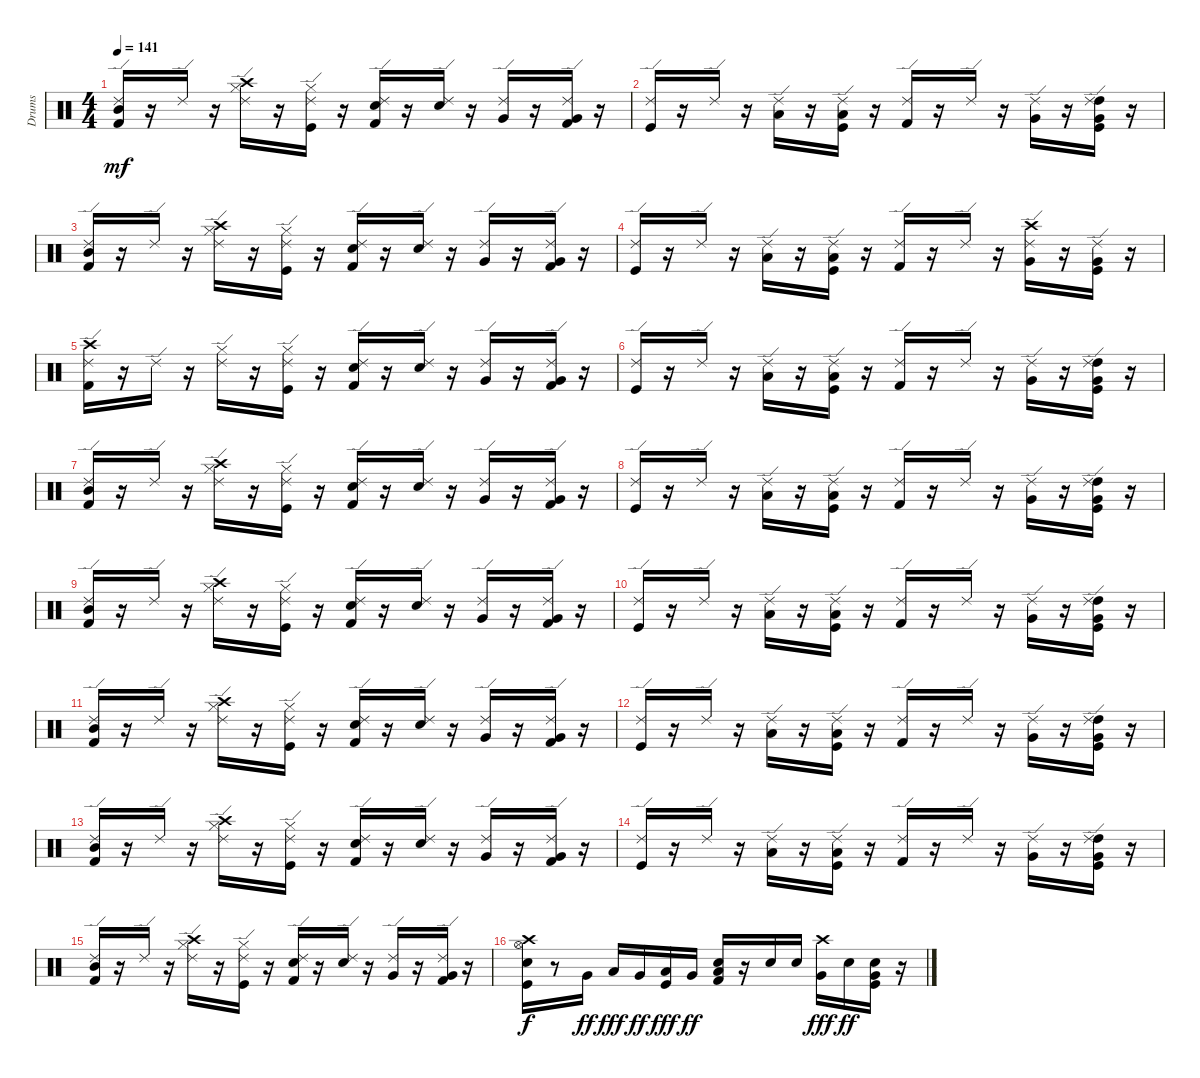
\track ("Drums" "Drums") {instrument percussion}
\staff {score}
\articulation defaults
\ts (4 4)
\tempo 141
\clef neutral
\ks c
("Kick (hit) 2" "Ride (edge) 2" "Mid Tom (hit)").16{dy mf} r.16 "Ride (edge) 2".16 r.16 ("Crash high (hit)" "Hi-Hat (closed)" "Ride (edge) 2").16 r.16 ("Kick (hit)" "Hi-Hat (closed)" "Ride (edge) 2").16 r.16 ("Snare (hit) 2" "Kick (hit) 2" "Ride (edge) 2").16 r.16 ("Snare (hit) 2" "Ride (edge) 2").16 r.16 ("Very Low Tom (hit)" "Ride (edge) 2").16 r.16 ("Kick (hit) 2" "Very Low Tom (hit)" "Ride (edge) 2").16 r.16 |
("Kick (hit)" "Ride (edge) 2").16 r.16 "Ride (edge) 2".16 r.16 ("Low Floor Tom (hit)" "Ride (edge) 2").16 r.16 ("Kick (hit)" "Low Floor Tom (hit)" "Ride (edge) 2").16 r.16 ("Kick (hit) 2" "Ride (edge) 2").16 r.16 "Ride (edge) 2".16 r.16 ("Very Low Tom (hit)" "Ride (edge) 2").16 r.16 ("High Tom (hit)" "Kick (hit)" "Very Low Tom (hit)" "Ride (edge) 2").16 r.16 |
("Kick (hit) 2" "Ride (edge) 2" "Mid Tom (hit)").16 r.16 "Ride (edge) 2".16 r.16 ("Crash high (hit)" "Hi-Hat (closed)" "Ride (edge) 2").16 r.16 ("Kick (hit)" "Hi-Hat (closed)" "Ride (edge) 2").16 r.16 ("Snare (hit) 2" "Kick (hit) 2" "Ride (edge) 2").16 r.16 ("Snare (hit) 2" "Ride (edge) 2").16 r.16 ("Very Low Tom (hit)" "Ride (edge) 2").16 r.16 ("Kick (hit) 2" "Very Low Tom (hit)" "Ride (edge) 2").16 r.16 |
("Kick (hit)" "Ride (edge) 2").16 r.16 "Ride (edge) 2".16 r.16 ("Low Floor Tom (hit)" "Ride (edge) 2").16 r.16 ("Kick (hit)" "Low Floor Tom (hit)" "Ride (edge) 2").16 r.16 ("Kick (hit) 2" "Ride (edge) 2").16 r.16 "Ride (edge) 2".16 r.16 ("Very Low Tom (hit)" "Crash high (hit)" "Ride (edge) 2").16 r.16 ("Kick (hit)" "Very Low Tom (hit)" "Ride (edge) 2").16 r.16 |
("Kick (hit) 2" "Ride (edge) 2" "Crash high (hit)").16 r.16 "Ride (edge) 2".16 r.16 ("Hi-Hat (closed)" "Ride (edge) 2").16 r.16 ("Kick (hit)" "Hi-Hat (closed)" "Ride (edge) 2").16 r.16 ("Snare (hit) 2" "Kick (hit) 2" "Ride (edge) 2").16 r.16 ("Snare (hit) 2" "Ride (edge) 2").16 r.16 ("Very Low Tom (hit)" "Ride (edge) 2").16 r.16 ("Kick (hit) 2" "Very Low Tom (hit)" "Ride (edge) 2").16 r.16 |
("Kick (hit)" "Ride (edge) 2").16 r.16 "Ride (edge) 2".16 r.16 ("Low Floor Tom (hit)" "Ride (edge) 2").16 r.16 ("Kick (hit)" "Low Floor Tom (hit)" "Ride (edge) 2").16 r.16 ("Kick (hit) 2" "Ride (edge) 2").16 r.16 "Ride (edge) 2".16 r.16 ("Very Low Tom (hit)" "Ride (edge) 2").16 r.16 ("High Tom (hit)" "Kick (hit)" "Very Low Tom (hit)" "Ride (edge) 2").16 r.16 |
("Kick (hit) 2" "Ride (edge) 2" "Mid Tom (hit)").16 r.16 "Ride (edge) 2".16 r.16 ("Crash high (hit)" "Hi-Hat (closed)" "Ride (edge) 2").16 r.16 ("Kick (hit)" "Hi-Hat (closed)" "Ride (edge) 2").16 r.16 ("Snare (hit) 2" "Kick (hit) 2" "Ride (edge) 2").16 r.16 ("Snare (hit) 2" "Ride (edge) 2").16 r.16 ("Very Low Tom (hit)" "Ride (edge) 2").16 r.16 ("Kick (hit) 2" "Very Low Tom (hit)" "Ride (edge) 2").16 r.16 |
("Kick (hit)" "Ride (edge) 2").16 r.16 "Ride (edge) 2".16 r.16 ("Low Floor Tom (hit)" "Ride (edge) 2").16 r.16 ("Kick (hit)" "Low Floor Tom (hit)" "Ride (edge) 2").16 r.16 ("Kick (hit) 2" "Ride (edge) 2").16 r.16 "Ride (edge) 2".16 r.16 ("Very Low Tom (hit)" "Ride (edge) 2").16 r.16 ("High Tom (hit)" "Kick (hit)" "Very Low Tom (hit)" "Ride (edge) 2").16 r.16 |
("Kick (hit) 2" "Ride (edge) 2" "Mid Tom (hit)").16 r.16 "Ride (edge) 2".16 r.16 ("Crash high (hit)" "Hi-Hat (closed)" "Ride (edge) 2").16 r.16 ("Kick (hit)" "Hi-Hat (closed)" "Ride (edge) 2").16 r.16 ("Snare (hit) 2" "Kick (hit) 2" "Ride (edge) 2").16 r.16 ("Snare (hit) 2" "Ride (edge) 2").16 r.16 ("Very Low Tom (hit)" "Ride (edge) 2").16 r.16 ("Kick (hit) 2" "Very Low Tom (hit)" "Ride (edge) 2").16 r.16 |
("Kick (hit)" "Ride (edge) 2").16 r.16 "Ride (edge) 2".16 r.16 ("Low Floor Tom (hit)" "Ride (edge) 2").16 r.16 ("Kick (hit)" "Low Floor Tom (hit)" "Ride (edge) 2").16 r.16 ("Kick (hit) 2" "Ride (edge) 2").16 r.16 "Ride (edge) 2".16 r.16 ("Very Low Tom (hit)" "Ride (edge) 2").16 r.16 ("High Tom (hit)" "Kick (hit)" "Very Low Tom (hit)" "Ride (edge) 2").16 r.16 |
("Kick (hit) 2" "Ride (edge) 2" "Mid Tom (hit)").16 r.16 "Ride (edge) 2".16 r.16 ("Crash high (hit)" "Hi-Hat (closed)" "Ride (edge) 2").16 r.16 ("Kick (hit)" "Hi-Hat (closed)" "Ride (edge) 2").16 r.16 ("Snare (hit) 2" "Kick (hit) 2" "Ride (edge) 2").16 r.16 ("Snare (hit) 2" "Ride (edge) 2").16 r.16 ("Very Low Tom (hit)" "Ride (edge) 2").16 r.16 ("Kick (hit) 2" "Very Low Tom (hit)" "Ride (edge) 2").16 r.16 |
("Kick (hit)" "Ride (edge) 2").16 r.16 "Ride (edge) 2".16 r.16 ("Low Floor Tom (hit)" "Ride (edge) 2").16 r.16 ("Kick (hit)" "Low Floor Tom (hit)" "Ride (edge) 2").16 r.16 ("Kick (hit) 2" "Ride (edge) 2").16 r.16 "Ride (edge) 2".16 r.16 ("Very Low Tom (hit)" "Ride (edge) 2").16 r.16 ("High Tom (hit)" "Kick (hit)" "Very Low Tom (hit)" "Ride (edge) 2").16 r.16 |
("Kick (hit) 2" "Ride (edge) 2" "Mid Tom (hit)").16 r.16 "Ride (edge) 2".16 r.16 ("Crash high (hit)" "Hi-Hat (closed)" "Ride (edge) 2").16 r.16 ("Kick (hit)" "Hi-Hat (closed)" "Ride (edge) 2").16 r.16 ("Snare (hit) 2" "Kick (hit) 2" "Ride (edge) 2").16 r.16 ("Snare (hit) 2" "Ride (edge) 2").16 r.16 ("Very Low Tom (hit)" "Ride (edge) 2").16 r.16 ("Kick (hit) 2" "Very Low Tom (hit)" "Ride (edge) 2").16 r.16 |
("Kick (hit)" "Ride (edge) 2").16 r.16 "Ride (edge) 2".16 r.16 ("Low Floor Tom (hit)" "Ride (edge) 2").16 r.16 ("Kick (hit)" "Low Floor Tom (hit)" "Ride (edge) 2").16 r.16 ("Kick (hit) 2" "Ride (edge) 2").16 r.16 "Ride (edge) 2".16 r.16 ("Very Low Tom (hit)" "Ride (edge) 2").16 r.16 ("High Tom (hit)" "Kick (hit)" "Very Low Tom (hit)" "Ride (edge) 2").16 r.16 |
("Kick (hit) 2" "Ride (edge) 2" "Mid Tom (hit)").16 r.16 "Ride (edge) 2".16 r.16 ("Crash high (hit)" "Hi-Hat (closed)" "Ride (edge) 2").16 r.16 ("Kick (hit)" "Hi-Hat (closed)" "Ride (edge) 2").16 r.16 ("Snare (hit) 2" "Kick (hit) 2" "Ride (edge) 2").16 r.16 ("Snare (hit) 2" "Ride (edge) 2").16 r.16 ("Very Low Tom (hit)" "Ride (edge) 2").16 r.16 ("Kick (hit) 2" "Very Low Tom (hit)" "Ride (edge) 2").16 r.16 |
("Snare (hit) 2" "Hi-Hat (open)" "Kick (hit)" "Crash high (hit)").16{dy f} r.8 "Very Low Tom (hit)".16{dy ff} "Low Floor Tom (hit)".16{dy fff} "Very Low Tom (hit)".16{dy ff} ("Kick (hit)" "Low Floor Tom (hit)").16{dy fff} "Very Low Tom (hit)".16{dy ff} ("Low Floor Tom (hit)" "Snare (hit) 2" "Kick (hit) 2").16 r.16 "Snare (hit) 2".16 "Snare (hit) 2".16 ("Crash high (hit)" "Very Low Tom (hit)").16{dy fff} "Snare (hit) 2".16{dy ff} ("Kick (hit)" "Very Low Tom (hit)" "Snare (hit) 2").16 r.16
